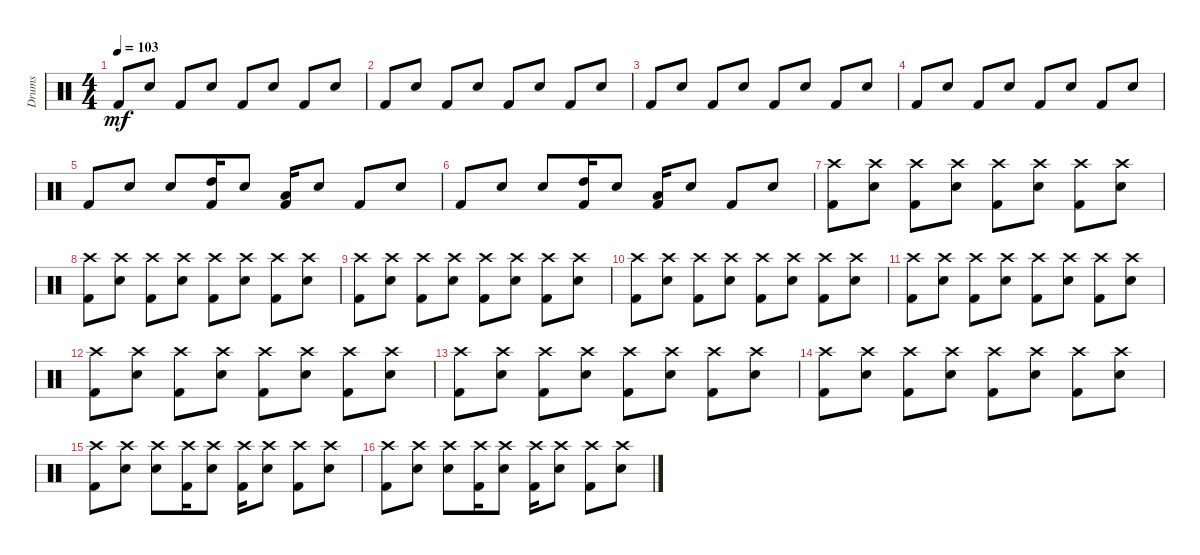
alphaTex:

\track ("Drums" "Drums") {instrument percussion}
\staff {score}
\articulation defaults
\ts (4 4)
\tempo 103
\clef neutral
\ks c "Kick (hit) 2".8{dy mf} "Snare (hit) 2".8 "Kick (hit) 2".8 "Snare (hit) 2".8 "Kick (hit) 2".8 "Snare (hit) 2".8 "Kick (hit) 2".8 "Snare (hit) 2".8
|
"Kick (hit) 2".8 "Snare (hit) 2".8 "Kick (hit) 2".8 "Snare (hit) 2".8 "Kick (hit) 2".8 "Snare (hit) 2".8 "Kick (hit) 2".8 "Snare (hit) 2".8 |
"Kick (hit) 2".8 "Snare (hit) 2".8 "Kick (hit) 2".8 "Snare (hit) 2".8 "Kick (hit) 2".8 "Snare (hit) 2".8 "Kick (hit) 2".8 "Snare (hit) 2".8 |
"Kick (hit) 2".8 "Snare (hit) 2".8 "Kick (hit) 2".8 "Snare (hit) 2".8 "Kick (hit) 2".8 "Snare (hit) 2".8 "Kick (hit) 2".8 "Snare (hit) 2".8 |
"Kick (hit) 2".8 "Snare (hit) 2".8 "Snare (hit) 2".8 ("High Tom (hit)" "Kick (hit) 2").16 "Snare (hit) 2".8 ("Low Floor Tom (hit)" "Kick (hit) 2").16 "Snare (hit) 2".8 "Kick (hit) 2".8 "Snare (hit) 2".8 |
"Kick (hit) 2".8 "Snare (hit) 2".8 "Snare (hit) 2".8 ("High Tom (hit)" "Kick (hit) 2").16 "Snare (hit) 2".8 ("Low Floor Tom (hit)" "Kick (hit) 2").16 "Snare (hit) 2".8 "Kick (hit) 2".8 "Snare (hit) 2".8 |
("Crash high (hit)" "Kick (hit) 2").8 ("Crash high (hit)" "Snare (hit) 2").8 ("Crash high (hit)" "Kick (hit) 2").8 ("Crash high (hit)" "Snare (hit) 2").8 ("Crash high (hit)" "Kick (hit) 2").8 ("Crash high (hit)" "Snare (hit) 2").8 ("Crash high (hit)" "Kick (hit) 2").8 ("Crash high (hit)" "Snare (hit) 2").8 |
("Crash high (hit)" "Kick (hit) 2").8 ("Crash high (hit)" "Snare (hit) 2").8 ("Crash high (hit)" "Kick (hit) 2").8 ("Crash high (hit)" "Snare (hit) 2").8 ("Crash high (hit)" "Kick (hit) 2").8 ("Crash high (hit)" "Snare (hit) 2").8 ("Crash high (hit)" "Kick (hit) 2").8 ("Crash high (hit)" "Snare (hit) 2").8 |
("Crash high (hit)" "Kick (hit) 2").8 ("Crash high (hit)" "Snare (hit) 2").8 ("Crash high (hit)" "Kick (hit) 2").8 ("Crash high (hit)" "Snare (hit) 2").8 ("Crash high (hit)" "Kick (hit) 2").8 ("Crash high (hit)" "Snare (hit) 2").8 ("Crash high (hit)" "Kick (hit) 2").8 ("Crash high (hit)" "Snare (hit) 2").8 |
("Crash high (hit)" "Kick (hit) 2").8 ("Crash high (hit)" "Snare (hit) 2").8 ("Crash high (hit)" "Kick (hit) 2").8 ("Crash high (hit)" "Snare (hit) 2").8 ("Crash high (hit)" "Kick (hit) 2").8 ("Crash high (hit)" "Snare (hit) 2").8 ("Crash high (hit)" "Kick (hit) 2").8 ("Crash high (hit)" "Snare (hit) 2").8 |
("Crash high (hit)" "Kick (hit) 2").8 ("Crash high (hit)" "Snare (hit) 2").8 ("Crash high (hit)" "Kick (hit) 2").8 ("Crash high (hit)" "Snare (hit) 2").8 ("Crash high (hit)" "Kick (hit) 2").8 ("Crash high (hit)" "Snare (hit) 2").8 ("Crash high (hit)" "Kick (hit) 2").8 ("Crash high (hit)" "Snare (hit) 2").8 |
("Crash high (hit)" "Kick (hit) 2").8 ("Crash high (hit)" "Snare (hit) 2").8 ("Crash high (hit)" "Kick (hit) 2").8 ("Crash high (hit)" "Snare (hit) 2").8 ("Crash high (hit)" "Kick (hit) 2").8 ("Crash high (hit)" "Snare (hit) 2").8 ("Crash high (hit)" "Kick (hit) 2").8 ("Crash high (hit)" "Snare (hit) 2").8 |
("Crash high (hit)" "Kick (hit) 2").8 ("Crash high (hit)" "Snare (hit) 2").8 ("Crash high (hit)" "Kick (hit) 2").8 ("Crash high (hit)" "Snare (hit) 2").8 ("Crash high (hit)" "Kick (hit) 2").8 ("Crash high (hit)" "Snare (hit) 2").8 ("Crash high (hit)" "Kick (hit) 2").8 ("Crash high (hit)" "Snare (hit) 2").8 |
("Crash high (hit)" "Kick (hit) 2").8 ("Crash high (hit)" "Snare (hit) 2").8 ("Crash high (hit)" "Kick (hit) 2").8 ("Crash high (hit)" "Snare (hit) 2").8 ("Crash high (hit)" "Kick (hit) 2").8 ("Crash high (hit)" "Snare (hit) 2").8 ("Crash high (hit)" "Kick (hit) 2").8 ("Crash high (hit)" "Snare (hit) 2").8 |
("Crash high (hit)" "Kick (hit) 2").8 ("Crash high (hit)" "Snare (hit) 2").8 ("Crash high (hit)" "Snare (hit) 2").8 ("Crash high (hit)" "Kick (hit) 2").16 ("Crash high (hit)" "Snare (hit) 2").8 ("Crash high (hit)" "Kick (hit) 2").16 ("Crash high (hit)" "Snare (hit) 2").8 ("Crash high (hit)" "Kick (hit) 2").8 ("Crash high (hit)" "Snare (hit) 2").8 |
("Crash high (hit)" "Kick (hit) 2").8 ("Crash high (hit)" "Snare (hit) 2").8 ("Crash high (hit)" "Snare (hit) 2").8 ("Crash high (hit)" "Kick (hit) 2").16 ("Crash high (hit)" "Snare (hit) 2").8 ("Crash high (hit)" "Kick (hit) 2").16 ("Crash high (hit)" "Snare (hit) 2").8 ("Crash high (hit)" "Kick (hit) 2").8 ("Crash high (hit)" "Snare (hit) 2").8
